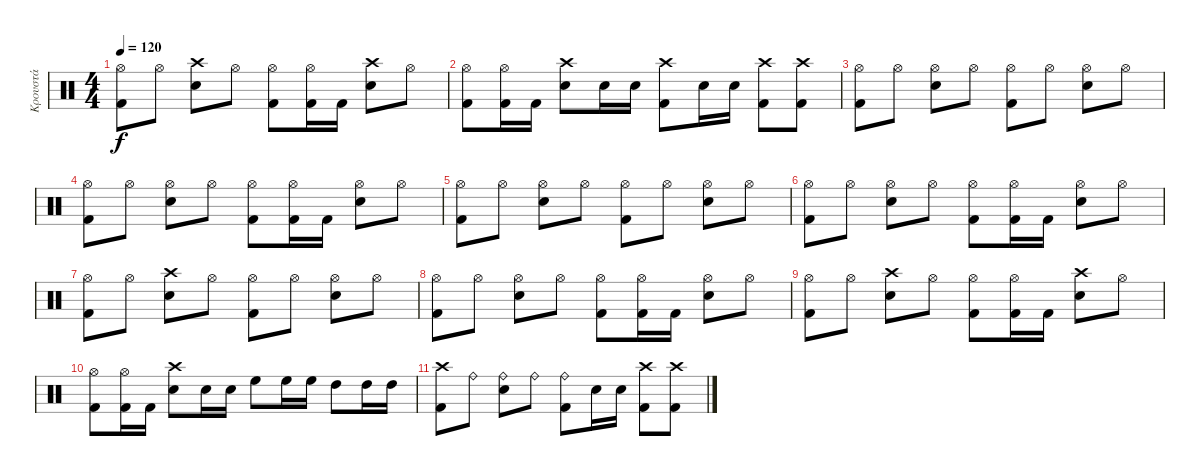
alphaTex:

\track ("Κρουστά" "Κρουστά") {instrument percussion}
\staff {score}
\articulation defaults
\ts (4 4)
\tempo 120
\clef neutral
\ks c
("Hi-Hat (open)" "Kick (hit) 2").8{dy f} "Hi-Hat (open)".8 ("Crash high (hit)" "Electric Snare (hit)").8 "Hi-Hat (open)".8 ("Hi-Hat (open)" "Kick (hit) 2").8 ("Hi-Hat (open)" "Kick (hit) 2").16 "Kick (hit) 2".16 ("Crash high (hit)" "Electric Snare (hit)").8 "Hi-Hat (open)".8 |
("Hi-Hat (open)" "Kick (hit) 2").8 ("Hi-Hat (open)" "Kick (hit) 2").16 "Kick (hit) 2".16 ("Crash high (hit)" "Electric Snare (hit)").8 "Electric Snare (hit)".16 "Electric Snare (hit)".16 ("Crash high (hit)" "Kick (hit) 2").8 "Electric Snare (hit)".16 "Electric Snare (hit)".16 ("Crash high (hit)" "Kick (hit) 2").8 ("Crash high (hit)" "Kick (hit) 2").8 |
("Hi-Hat (open)" "Kick (hit) 2").8 "Hi-Hat (open)".8 ("Hi-Hat (open)" "Electric Snare (hit)").8 "Hi-Hat (open)".8 ("Hi-Hat (open)" "Kick (hit) 2").8 "Hi-Hat (open)".8 ("Hi-Hat (open)" "Electric Snare (hit)").8 "Hi-Hat (open)".8 |
("Hi-Hat (open)" "Kick (hit) 2").8 "Hi-Hat (open)".8 ("Hi-Hat (open)" "Electric Snare (hit)").8 "Hi-Hat (open)".8 ("Hi-Hat (open)" "Kick (hit) 2").8 ("Hi-Hat (open)" "Kick (hit) 2").16 "Kick (hit) 2".16 ("Hi-Hat (open)" "Electric Snare (hit)").8 "Hi-Hat (open)".8 |
("Hi-Hat (open)" "Kick (hit) 2").8 "Hi-Hat (open)".8 ("Hi-Hat (open)" "Electric Snare (hit)").8 "Hi-Hat (open)".8 ("Hi-Hat (open)" "Kick (hit) 2").8 "Hi-Hat (open)".8 ("Hi-Hat (open)" "Electric Snare (hit)").8 "Hi-Hat (open)".8 |
("Hi-Hat (open)" "Kick (hit) 2").8 "Hi-Hat (open)".8 ("Hi-Hat (open)" "Electric Snare (hit)").8 "Hi-Hat (open)".8 ("Hi-Hat (open)" "Kick (hit) 2").8 ("Hi-Hat (open)" "Kick (hit) 2").16 "Kick (hit) 2".16 ("Hi-Hat (open)" "Electric Snare (hit)").8 "Hi-Hat (open)".8 |
("Hi-Hat (open)" "Kick (hit) 2").8 "Hi-Hat (open)".8 ("Crash high (hit)" "Electric Snare (hit)").8 "Hi-Hat (open)".8 ("Hi-Hat (open)" "Kick (hit) 2").8 "Hi-Hat (open)".8 ("Hi-Hat (open)" "Electric Snare (hit)").8 "Hi-Hat (open)".8 |
("Hi-Hat (open)" "Kick (hit) 2").8 "Hi-Hat (open)".8 ("Hi-Hat (open)" "Electric Snare (hit)").8 "Hi-Hat (open)".8 ("Hi-Hat (open)" "Kick (hit) 2").8 ("Hi-Hat (open)" "Kick (hit) 2").16 "Kick (hit) 2".16 ("Hi-Hat (open)" "Electric Snare (hit)").8 "Hi-Hat (open)".8 |
("Hi-Hat (open)" "Kick (hit) 2").8 "Hi-Hat (open)".8 ("Crash high (hit)" "Electric Snare (hit)").8 "Hi-Hat (open)".8 ("Hi-Hat (open)" "Kick (hit) 2").8 ("Hi-Hat (open)" "Kick (hit) 2").16 "Kick (hit) 2".16 ("Crash high (hit)" "Electric Snare (hit)").8 "Hi-Hat (open)".8 |
("Hi-Hat (open)" "Kick (hit) 2").8 ("Hi-Hat (open)" "Kick (hit) 2").16 "Kick (hit) 2".16 ("Crash high (hit)" "Electric Snare (hit)").8 "Electric Snare (hit)".16 "Electric Snare (hit)".16 "High Floor Tom (hit)".8 "High Floor Tom (hit)".16 "High Floor Tom (hit)".16 "High Tom (hit)".8 "High Tom (hit)".16 "High Tom (hit)".16 |
("Crash high (hit)" "Kick (hit) 2").8 "Ride (bell)".8 ("Ride (bell)" "Electric Snare (hit)").8 "Ride (bell)".8 ("Ride (bell)" "Kick (hit) 2").8 "Electric Snare (hit)".16 "Electric Snare (hit)".16 ("Crash high (hit)" "Kick (hit) 2").8 ("Crash high (hit)" "Kick (hit) 2").8
